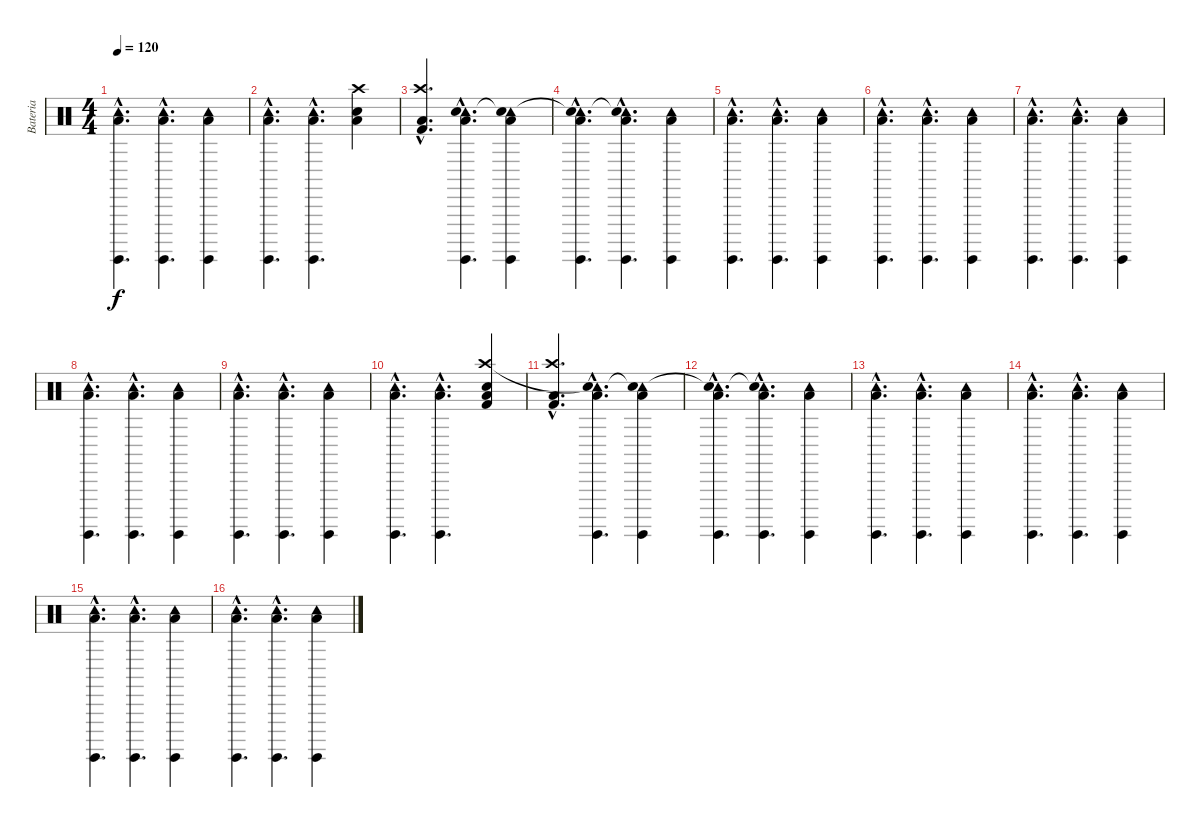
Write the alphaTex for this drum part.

\track ("Bateria" "Bateria") {instrument percussion}
\staff {score}
\articulation defaults
\ts (4 4)
\tempo 120
\clef neutral
\ks c
("Low Tom (hit)"{hac} "Surdo (hit)"{hac} "Tambourine (hit)"{hac}).4{d dy f} ("Low Tom (hit)"{hac} "Surdo (hit)"{hac} "Tambourine (hit)"{hac}).4{d} ("Low Tom (hit)" "Surdo (hit)" "Tambourine (hit)").4 |
("Low Tom (hit)"{hac} "Surdo (hit)"{hac} "Tambourine (hit)"{hac}).4{d} ("Low Tom (hit)"{hac} "Surdo (hit)"{hac} "Tambourine (hit)"{hac}).4{d} ("Crash high (hit)" "Low Tom (hit)" "Electric Snare (hit)").4 |
("Kick (hit) 2"{hac} "Low Tom (hit)"{hac} "Crash high (hit)"{hac}).4{d} ("Low Tom (hit)"{hac} "Surdo (hit)"{hac} "Tambourine (hit)"{hac} "Snare (hit)"{hac}).4{d} ("Low Tom (hit)" "Surdo (hit)" "Tambourine (hit)" "Snare (hit)"{t}).4 |
("Low Tom (hit)"{hac} "Surdo (hit)"{hac} "Tambourine (hit)"{hac} "Snare (hit)"{hac t}).4{d} ("Low Tom (hit)"{hac} "Surdo (hit)"{hac} "Tambourine (hit)"{hac} "Snare (hit)"{hac t}).4{d} ("Low Tom (hit)" "Surdo (hit)" "Tambourine (hit)").4 |
("Low Tom (hit)"{hac} "Surdo (hit)"{hac} "Tambourine (hit)"{hac}).4{d} ("Low Tom (hit)"{hac} "Surdo (hit)"{hac} "Tambourine (hit)"{hac}).4{d} ("Low Tom (hit)" "Surdo (hit)" "Tambourine (hit)").4 |
("Low Tom (hit)"{hac} "Surdo (hit)"{hac} "Tambourine (hit)"{hac}).4{d} ("Low Tom (hit)"{hac} "Surdo (hit)"{hac} "Tambourine (hit)"{hac}).4{d} ("Low Tom (hit)" "Surdo (hit)" "Tambourine (hit)").4 |
("Low Tom (hit)"{hac} "Surdo (hit)"{hac} "Tambourine (hit)"{hac}).4{d} ("Low Tom (hit)"{hac} "Surdo (hit)"{hac} "Tambourine (hit)"{hac}).4{d} ("Low Tom (hit)" "Surdo (hit)" "Tambourine (hit)").4 |
("Low Tom (hit)"{hac} "Surdo (hit)"{hac} "Tambourine (hit)"{hac}).4{d} ("Low Tom (hit)"{hac} "Surdo (hit)"{hac} "Tambourine (hit)"{hac}).4{d} ("Low Tom (hit)" "Surdo (hit)" "Tambourine (hit)").4 |
("Low Tom (hit)"{hac} "Surdo (hit)"{hac} "Tambourine (hit)"{hac}).4{d} ("Low Tom (hit)"{hac} "Surdo (hit)"{hac} "Tambourine (hit)"{hac}).4{d} ("Low Tom (hit)" "Surdo (hit)" "Tambourine (hit)").4 |
("Low Tom (hit)"{hac} "Surdo (hit)"{hac} "Tambourine (hit)"{hac}).4{d} ("Low Tom (hit)"{hac} "Surdo (hit)"{hac} "Tambourine (hit)"{hac}).4{d} ("Kick (hit) 2" "Low Tom (hit)" "Electric Snare (hit)" "Crash high (hit)").4 |
("Kick (hit) 2"{hac} "Low Tom (hit)"{hac} "Crash high (hit)"{hac}).4{d} ("Low Tom (hit)"{hac} "Surdo (hit)"{hac} "Tambourine (hit)"{hac} "Snare (hit)"{hac t}).4{d} ("Low Tom (hit)" "Surdo (hit)" "Tambourine (hit)" "Snare (hit)"{t}).4 |
("Low Tom (hit)"{hac} "Surdo (hit)"{hac} "Tambourine (hit)"{hac} "Snare (hit)"{hac t}).4{d} ("Low Tom (hit)"{hac} "Surdo (hit)"{hac} "Tambourine (hit)"{hac} "Snare (hit)"{hac t}).4{d} ("Low Tom (hit)" "Surdo (hit)" "Tambourine (hit)").4 |
("Low Tom (hit)"{hac} "Surdo (hit)"{hac} "Tambourine (hit)"{hac}).4{d} ("Low Tom (hit)"{hac} "Surdo (hit)"{hac} "Tambourine (hit)"{hac}).4{d} ("Low Tom (hit)" "Surdo (hit)" "Tambourine (hit)").4 |
("Low Tom (hit)"{hac} "Surdo (hit)"{hac} "Tambourine (hit)"{hac}).4{d} ("Low Tom (hit)"{hac} "Surdo (hit)"{hac} "Tambourine (hit)"{hac}).4{d} ("Low Tom (hit)" "Surdo (hit)" "Tambourine (hit)").4 |
("Low Tom (hit)"{hac} "Surdo (hit)"{hac} "Tambourine (hit)"{hac}).4{d} ("Low Tom (hit)"{hac} "Surdo (hit)"{hac} "Tambourine (hit)"{hac}).4{d} ("Low Tom (hit)" "Surdo (hit)" "Tambourine (hit)").4 |
("Low Tom (hit)"{hac} "Surdo (hit)"{hac} "Tambourine (hit)"{hac}).4{d} ("Low Tom (hit)"{hac} "Surdo (hit)"{hac} "Tambourine (hit)"{hac}).4{d} ("Low Tom (hit)" "Surdo (hit)" "Tambourine (hit)").4
